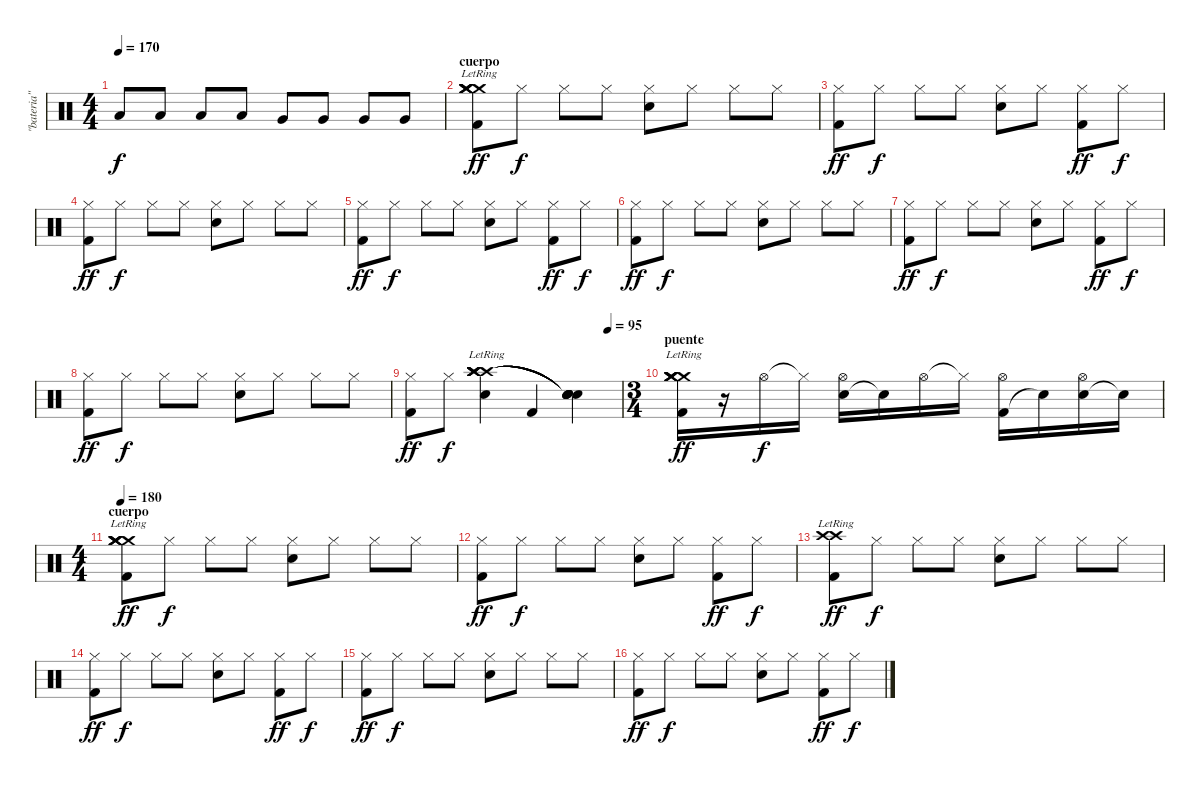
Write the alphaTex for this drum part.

\track ("\"bateria\"" "\"bateria\"") {instrument percussion}
\staff {score}
\articulation defaults
\ts (4 4)
\tempo 170
\clef neutral
\ks c "Low Tom (hit)".8{dy f} "Low Tom (hit)".8 "Low Tom (hit)".8 "Low Tom (hit)".8 "Very Low Tom (hit)".8 "Very Low Tom (hit)".8 "Very Low Tom (hit)".8 "Very Low Tom (hit)".8
|
\section ("" "cuerpo")
("Kick (hit) 2" "Crash medium (hit)"{lr} "Crash medium (hit)"{lr} "Crash medium (hit)"{lr} "Crash medium (hit)"{lr} "Crash medium (hit)"{lr}).8{dy ff} "Hi-Hat (closed)".8{dy f} "Hi-Hat (closed)".8 "Hi-Hat (closed)".8 ("Electric Snare (hit)" "Hi-Hat (closed)").8 "Hi-Hat (closed)".8 "Hi-Hat (closed)".8 "Hi-Hat (closed)".8 |
("Kick (hit) 2" "Hi-Hat (closed)").8{dy ff} "Hi-Hat (closed)".8{dy f} "Hi-Hat (closed)".8 "Hi-Hat (closed)".8 ("Electric Snare (hit)" "Hi-Hat (closed)").8 "Hi-Hat (closed)".8 ("Kick (hit) 2" "Hi-Hat (closed)").8{dy ff} "Hi-Hat (closed)".8{dy f} |
("Kick (hit) 2" "Hi-Hat (closed)").8{dy ff} "Hi-Hat (closed)".8{dy f} "Hi-Hat (closed)".8 "Hi-Hat (closed)".8 ("Electric Snare (hit)" "Hi-Hat (closed)").8 "Hi-Hat (closed)".8 "Hi-Hat (closed)".8 "Hi-Hat (closed)".8 |
("Kick (hit) 2" "Hi-Hat (closed)").8{dy ff} "Hi-Hat (closed)".8{dy f} "Hi-Hat (closed)".8 "Hi-Hat (closed)".8 ("Electric Snare (hit)" "Hi-Hat (closed)").8 "Hi-Hat (closed)".8 ("Kick (hit) 2" "Hi-Hat (closed)").8{dy ff} "Hi-Hat (closed)".8{dy f} |
("Kick (hit) 2" "Hi-Hat (closed)").8{dy ff} "Hi-Hat (closed)".8{dy f} "Hi-Hat (closed)".8 "Hi-Hat (closed)".8 ("Electric Snare (hit)" "Hi-Hat (closed)").8 "Hi-Hat (closed)".8 "Hi-Hat (closed)".8 "Hi-Hat (closed)".8 |
("Kick (hit) 2" "Hi-Hat (closed)").8{dy ff} "Hi-Hat (closed)".8{dy f} "Hi-Hat (closed)".8 "Hi-Hat (closed)".8 ("Electric Snare (hit)" "Hi-Hat (closed)").8 "Hi-Hat (closed)".8 ("Kick (hit) 2" "Hi-Hat (closed)").8{dy ff} "Hi-Hat (closed)".8{dy f} |
("Kick (hit) 2" "Hi-Hat (closed)").8{dy ff} "Hi-Hat (closed)".8{dy f} "Hi-Hat (closed)".8 "Hi-Hat (closed)".8 ("Electric Snare (hit)" "Hi-Hat (closed)").8 "Hi-Hat (closed)".8 "Hi-Hat (closed)".8 "Hi-Hat (closed)".8 |
\tempo (95 0.9375)
("Kick (hit) 2" "Hi-Hat (closed)").8{dy ff} "Hi-Hat (closed)".8{dy f} ("Electric Snare (hit)" "Crash high (hit)"{lr} "Crash high (hit)"{lr} "Crash high (hit)"{lr} "Crash high (hit)"{lr} "Crash high (hit)"{lr}).4 "Kick (hit) 2".4 ("Electric Snare (hit)" "Snare (hit)"{t} "Snare (hit)"{t} "Snare (hit)"{t} "Snare (hit)"{t} "Snare (hit)"{t}).4 |
\ts (3 4)
\section ("" "puente")
("Kick (hit) 2" "Crash medium (hit)"{lr} "Crash medium (hit)"{lr} "Crash medium (hit)"{lr} "Crash medium (hit)"{lr} "Crash medium (hit)"{lr}).16{dy ff} r.16 "Hi-Hat (open)".16{dy f} "Hi-Hat (closed)"{t}.16 ("Electric Snare (hit)" "Hi-Hat (open)").16 "Snare (hit)"{t}.16 "Hi-Hat (open)".16 "Hi-Hat (closed)"{t}.16 ("Kick (hit) 2" "Hi-Hat (open)").16 "Snare (hit)"{t}.16 ("Electric Snare (hit)" "Hi-Hat (open)").16 "Snare (hit)"{t}.16 |
\ts (4 4)
\section ("" "cuerpo")
\tempo 180
("Kick (hit) 2" "Crash medium (hit)"{lr} "Crash medium (hit)"{lr} "Crash medium (hit)"{lr} "Crash medium (hit)"{lr} "Crash medium (hit)"{lr}).8{dy ff} "Hi-Hat (closed)".8{dy f} "Hi-Hat (closed)".8 "Hi-Hat (closed)".8 ("Electric Snare (hit)" "Hi-Hat (closed)").8 "Hi-Hat (closed)".8 "Hi-Hat (closed)".8 "Hi-Hat (closed)".8 |
("Kick (hit) 2" "Hi-Hat (closed)").8{dy ff} "Hi-Hat (closed)".8{dy f} "Hi-Hat (closed)".8 "Hi-Hat (closed)".8 ("Electric Snare (hit)" "Hi-Hat (closed)").8 "Hi-Hat (closed)".8 ("Kick (hit) 2" "Hi-Hat (closed)").8{dy ff} "Hi-Hat (closed)".8{dy f} |
("Kick (hit) 2" "Crash high (hit)" "Crash high (hit)"{lr}).8{dy ff} "Hi-Hat (closed)".8{dy f} "Hi-Hat (closed)".8 "Hi-Hat (closed)".8 ("Electric Snare (hit)" "Hi-Hat (closed)").8 "Hi-Hat (closed)".8 "Hi-Hat (closed)".8 "Hi-Hat (closed)".8 |
("Kick (hit) 2" "Hi-Hat (closed)").8{dy ff} "Hi-Hat (closed)".8{dy f} "Hi-Hat (closed)".8 "Hi-Hat (closed)".8 ("Electric Snare (hit)" "Hi-Hat (closed)").8 "Hi-Hat (closed)".8 ("Kick (hit) 2" "Hi-Hat (closed)").8{dy ff} "Hi-Hat (closed)".8{dy f} |
("Kick (hit) 2" "Hi-Hat (closed)").8{dy ff} "Hi-Hat (closed)".8{dy f} "Hi-Hat (closed)".8 "Hi-Hat (closed)".8 ("Electric Snare (hit)" "Hi-Hat (closed)").8 "Hi-Hat (closed)".8 "Hi-Hat (closed)".8 "Hi-Hat (closed)".8 |
("Kick (hit) 2" "Hi-Hat (closed)").8{dy ff} "Hi-Hat (closed)".8{dy f} "Hi-Hat (closed)".8 "Hi-Hat (closed)".8 ("Electric Snare (hit)" "Hi-Hat (closed)").8 "Hi-Hat (closed)".8 ("Kick (hit) 2" "Hi-Hat (closed)").8{dy ff} "Hi-Hat (closed)".8{dy f}
